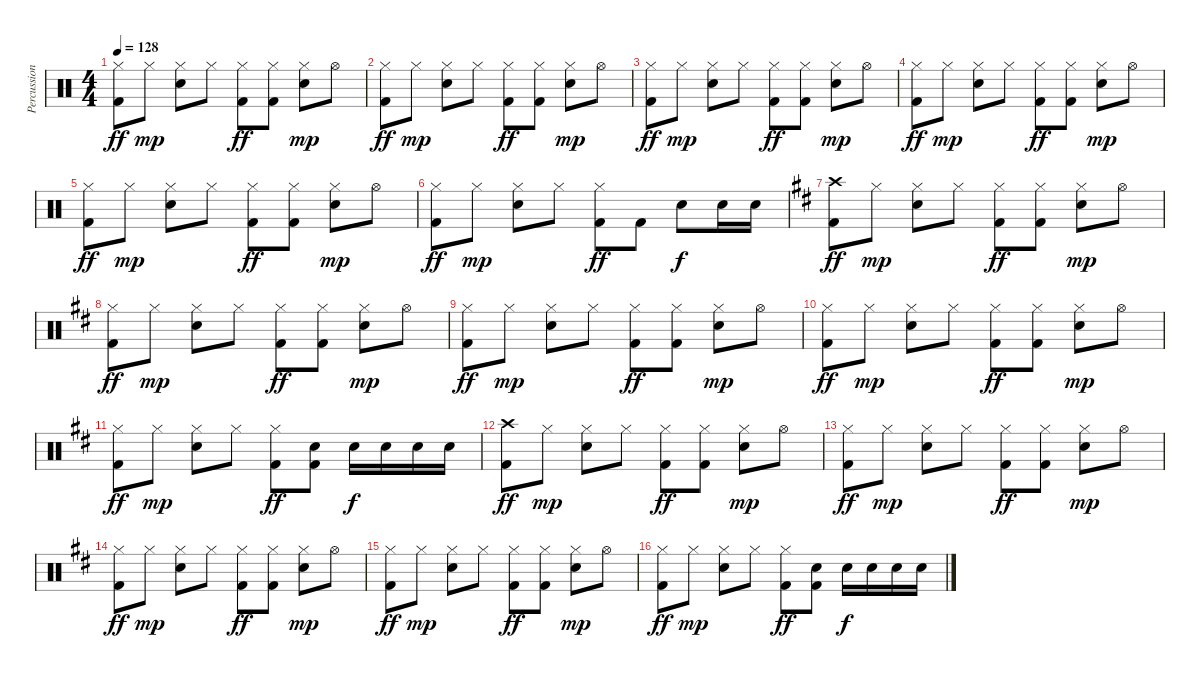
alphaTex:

\track ("Percussion" "Percussion") {instrument percussion}
\staff {score}
\articulation defaults
\ts (4 4)
\tempo 128
\clef neutral
\ks c
("Hi-Hat (closed)" "Kick (hit) 2").8{dy ff} "Hi-Hat (closed)".8{dy mp} ("Hi-Hat (closed)" "Electric Snare (hit)").8 "Hi-Hat (closed)".8 ("Hi-Hat (closed)" "Kick (hit) 2").8{dy ff} ("Hi-Hat (closed)" "Kick (hit) 2").8 ("Hi-Hat (closed)" "Electric Snare (hit)").8{dy mp} "Hi-Hat (open)".8 |
("Hi-Hat (closed)" "Kick (hit) 2").8{dy ff} "Hi-Hat (closed)".8{dy mp} ("Hi-Hat (closed)" "Electric Snare (hit)").8 "Hi-Hat (closed)".8 ("Hi-Hat (closed)" "Kick (hit) 2").8{dy ff} ("Hi-Hat (closed)" "Kick (hit) 2").8 ("Hi-Hat (closed)" "Electric Snare (hit)").8{dy mp} "Hi-Hat (open)".8 |
("Hi-Hat (closed)" "Kick (hit) 2").8{dy ff} "Hi-Hat (closed)".8{dy mp} ("Hi-Hat (closed)" "Electric Snare (hit)").8 "Hi-Hat (closed)".8 ("Hi-Hat (closed)" "Kick (hit) 2").8{dy ff} ("Hi-Hat (closed)" "Kick (hit) 2").8 ("Hi-Hat (closed)" "Electric Snare (hit)").8{dy mp} "Hi-Hat (open)".8 |
("Hi-Hat (closed)" "Kick (hit) 2").8{dy ff} "Hi-Hat (closed)".8{dy mp} ("Hi-Hat (closed)" "Electric Snare (hit)").8 "Hi-Hat (closed)".8 ("Hi-Hat (closed)" "Kick (hit) 2").8{dy ff} ("Hi-Hat (closed)" "Kick (hit) 2").8 ("Hi-Hat (closed)" "Electric Snare (hit)").8{dy mp} "Hi-Hat (open)".8 |
("Hi-Hat (closed)" "Kick (hit) 2").8{dy ff} "Hi-Hat (closed)".8{dy mp} ("Hi-Hat (closed)" "Electric Snare (hit)").8 "Hi-Hat (closed)".8 ("Hi-Hat (closed)" "Kick (hit) 2").8{dy ff} ("Hi-Hat (closed)" "Kick (hit) 2").8 ("Hi-Hat (closed)" "Electric Snare (hit)").8{dy mp} "Hi-Hat (open)".8 |
("Hi-Hat (closed)" "Kick (hit) 2").8{dy ff} "Hi-Hat (closed)".8{dy mp} ("Hi-Hat (closed)" "Electric Snare (hit)").8 "Hi-Hat (closed)".8 ("Hi-Hat (closed)" "Kick (hit) 2").8{dy ff} "Kick (hit) 2".8 "Electric Snare (hit)".8{dy f} "Electric Snare (hit)".16 "Electric Snare (hit)".16 |
\ks d
("Crash high (hit)" "Kick (hit) 2").8{dy ff} "Hi-Hat (closed)".8{dy mp} ("Hi-Hat (closed)" "Electric Snare (hit)").8 "Hi-Hat (closed)".8 ("Hi-Hat (closed)" "Kick (hit) 2").8{dy ff} ("Hi-Hat (closed)" "Kick (hit) 2").8 ("Hi-Hat (closed)" "Electric Snare (hit)").8{dy mp} "Hi-Hat (open)".8 |
("Hi-Hat (closed)" "Kick (hit) 2").8{dy ff} "Hi-Hat (closed)".8{dy mp} ("Hi-Hat (closed)" "Electric Snare (hit)").8 "Hi-Hat (closed)".8 ("Hi-Hat (closed)" "Kick (hit) 2").8{dy ff} ("Hi-Hat (closed)" "Kick (hit) 2").8 ("Hi-Hat (closed)" "Electric Snare (hit)").8{dy mp} "Hi-Hat (open)".8 |
("Hi-Hat (closed)" "Kick (hit) 2").8{dy ff} "Hi-Hat (closed)".8{dy mp} ("Hi-Hat (closed)" "Electric Snare (hit)").8 "Hi-Hat (closed)".8 ("Hi-Hat (closed)" "Kick (hit) 2").8{dy ff} ("Hi-Hat (closed)" "Kick (hit) 2").8 ("Hi-Hat (closed)" "Electric Snare (hit)").8{dy mp} "Hi-Hat (open)".8 |
("Hi-Hat (closed)" "Kick (hit) 2").8{dy ff} "Hi-Hat (closed)".8{dy mp} ("Hi-Hat (closed)" "Electric Snare (hit)").8 "Hi-Hat (closed)".8 ("Hi-Hat (closed)" "Kick (hit) 2").8{dy ff} ("Hi-Hat (closed)" "Kick (hit) 2").8 ("Hi-Hat (closed)" "Electric Snare (hit)").8{dy mp} "Hi-Hat (open)".8 |
("Hi-Hat (closed)" "Kick (hit) 2").8{dy ff} "Hi-Hat (closed)".8{dy mp} ("Hi-Hat (closed)" "Electric Snare (hit)").8 "Hi-Hat (closed)".8 ("Hi-Hat (closed)" "Kick (hit) 2").8{dy ff} ("Electric Snare (hit)" "Kick (hit) 2").8 "Electric Snare (hit)".16{dy f} "Electric Snare (hit)".16 "Electric Snare (hit)".16 "Electric Snare (hit)".16 |
("Crash high (hit)" "Kick (hit) 2").8{dy ff} "Hi-Hat (closed)".8{dy mp} ("Hi-Hat (closed)" "Electric Snare (hit)").8 "Hi-Hat (closed)".8 ("Hi-Hat (closed)" "Kick (hit) 2").8{dy ff} ("Hi-Hat (closed)" "Kick (hit) 2").8 ("Hi-Hat (closed)" "Electric Snare (hit)").8{dy mp} "Hi-Hat (open)".8 |
("Hi-Hat (closed)" "Kick (hit) 2").8{dy ff} "Hi-Hat (closed)".8{dy mp} ("Hi-Hat (closed)" "Electric Snare (hit)").8 "Hi-Hat (closed)".8 ("Hi-Hat (closed)" "Kick (hit) 2").8{dy ff} ("Hi-Hat (closed)" "Kick (hit) 2").8 ("Hi-Hat (closed)" "Electric Snare (hit)").8{dy mp} "Hi-Hat (open)".8 |
("Hi-Hat (closed)" "Kick (hit) 2").8{dy ff} "Hi-Hat (closed)".8{dy mp} ("Hi-Hat (closed)" "Electric Snare (hit)").8 "Hi-Hat (closed)".8 ("Hi-Hat (closed)" "Kick (hit) 2").8{dy ff} ("Hi-Hat (closed)" "Kick (hit) 2").8 ("Hi-Hat (closed)" "Electric Snare (hit)").8{dy mp} "Hi-Hat (open)".8 |
("Hi-Hat (closed)" "Kick (hit) 2").8{dy ff} "Hi-Hat (closed)".8{dy mp} ("Hi-Hat (closed)" "Electric Snare (hit)").8 "Hi-Hat (closed)".8 ("Hi-Hat (closed)" "Kick (hit) 2").8{dy ff} ("Hi-Hat (closed)" "Kick (hit) 2").8 ("Hi-Hat (closed)" "Electric Snare (hit)").8{dy mp} "Hi-Hat (open)".8 |
("Hi-Hat (closed)" "Kick (hit) 2").8{dy ff} "Hi-Hat (closed)".8{dy mp} ("Hi-Hat (closed)" "Electric Snare (hit)").8 "Hi-Hat (closed)".8 ("Hi-Hat (closed)" "Kick (hit) 2").8{dy ff} ("Electric Snare (hit)" "Kick (hit) 2").8 "Electric Snare (hit)".16{dy f} "Electric Snare (hit)".16 "Electric Snare (hit)".16 "Electric Snare (hit)".16
